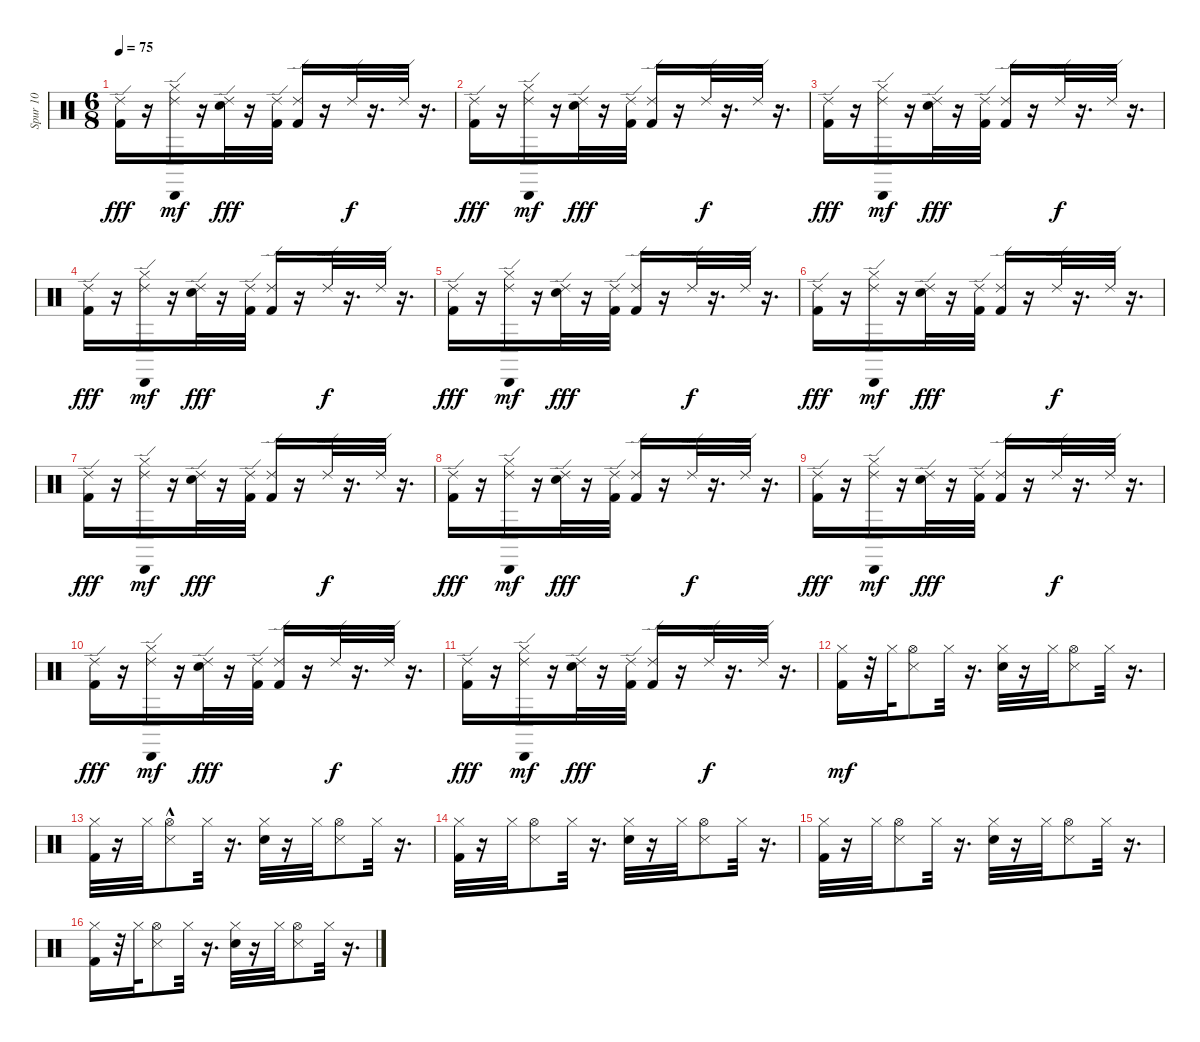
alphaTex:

\track ("Spur 10" "Spur 10") {instrument percussion}
\staff {score}
\articulation defaults
\ts (6 8)
\tempo 75
\clef neutral
\ks c
("Kick (hit) 2" "Ride (edge) 2").16{dy fff} r.16 ("Cabasa (hit)" "Hi-Hat (closed)" "Ride (edge) 2").16{dy mf} r.16 ("Snare (hit) 2" "Ride (edge) 2").32{dy fff} r.16 ("Kick (hit) 2" "Ride (edge) 2").32 ("Kick (hit) 2" "Ride (edge) 2").16 r.16 "Ride (edge) 2".32{dy f} r.16{d} "Ride (edge) 2".32 r.16{d} |
("Kick (hit) 2" "Ride (edge) 2").16{dy fff} r.16 ("Cabasa (hit)" "Hi-Hat (closed)" "Ride (edge) 2").16{dy mf} r.16 ("Snare (hit) 2" "Ride (edge) 2").32{dy fff} r.16 ("Kick (hit) 2" "Ride (edge) 2").32 ("Kick (hit) 2" "Ride (edge) 2").16 r.16 "Ride (edge) 2".32{dy f} r.16{d} "Ride (edge) 2".32 r.16{d} |
("Kick (hit) 2" "Ride (edge) 2").16{dy fff} r.16 ("Cabasa (hit)" "Hi-Hat (closed)" "Ride (edge) 2").16{dy mf} r.16 ("Snare (hit) 2" "Ride (edge) 2").32{dy fff} r.16 ("Kick (hit) 2" "Ride (edge) 2").32 ("Kick (hit) 2" "Ride (edge) 2").16 r.16 "Ride (edge) 2".32{dy f} r.16{d} "Ride (edge) 2".32 r.16{d} |
("Kick (hit) 2" "Ride (edge) 2").16{dy fff} r.16 ("Cabasa (hit)" "Hi-Hat (closed)" "Ride (edge) 2").16{dy mf} r.16 ("Snare (hit) 2" "Ride (edge) 2").32{dy fff} r.16 ("Kick (hit) 2" "Ride (edge) 2").32 ("Kick (hit) 2" "Ride (edge) 2").16 r.16 "Ride (edge) 2".32{dy f} r.16{d} "Ride (edge) 2".32 r.16{d} |
("Kick (hit) 2" "Ride (edge) 2").16{dy fff} r.16 ("Cabasa (hit)" "Hi-Hat (closed)" "Ride (edge) 2").16{dy mf} r.16 ("Snare (hit) 2" "Ride (edge) 2").32{dy fff} r.16 ("Kick (hit) 2" "Ride (edge) 2").32 ("Kick (hit) 2" "Ride (edge) 2").16 r.16 "Ride (edge) 2".32{dy f} r.16{d} "Ride (edge) 2".32 r.16{d} |
("Kick (hit) 2" "Ride (edge) 2").16{dy fff} r.16 ("Cabasa (hit)" "Hi-Hat (closed)" "Ride (edge) 2").16{dy mf} r.16 ("Snare (hit) 2" "Ride (edge) 2").32{dy fff} r.16 ("Kick (hit) 2" "Ride (edge) 2").32 ("Kick (hit) 2" "Ride (edge) 2").16 r.16 "Ride (edge) 2".32{dy f} r.16{d} "Ride (edge) 2".32 r.16{d} |
("Kick (hit) 2" "Ride (edge) 2").16{dy fff} r.16 ("Cabasa (hit)" "Hi-Hat (closed)" "Ride (edge) 2").16{dy mf} r.16 ("Snare (hit) 2" "Ride (edge) 2").32{dy fff} r.16 ("Kick (hit) 2" "Ride (edge) 2").32 ("Kick (hit) 2" "Ride (edge) 2").16 r.16 "Ride (edge) 2".32{dy f} r.16{d} "Ride (edge) 2".32 r.16{d} |
("Kick (hit) 2" "Ride (edge) 2").16{dy fff} r.16 ("Cabasa (hit)" "Hi-Hat (closed)" "Ride (edge) 2").16{dy mf} r.16 ("Snare (hit) 2" "Ride (edge) 2").32{dy fff} r.16 ("Kick (hit) 2" "Ride (edge) 2").32 ("Kick (hit) 2" "Ride (edge) 2").16 r.16 "Ride (edge) 2".32{dy f} r.16{d} "Ride (edge) 2".32 r.16{d} |
("Kick (hit) 2" "Ride (edge) 2").16{dy fff} r.16 ("Cabasa (hit)" "Hi-Hat (closed)" "Ride (edge) 2").16{dy mf} r.16 ("Snare (hit) 2" "Ride (edge) 2").32{dy fff} r.16 ("Kick (hit) 2" "Ride (edge) 2").32 ("Kick (hit) 2" "Ride (edge) 2").16 r.16 "Ride (edge) 2".32{dy f} r.16{d} "Ride (edge) 2".32 r.16{d} |
("Kick (hit) 2" "Ride (edge) 2").16{dy fff} r.16 ("Cabasa (hit)" "Hi-Hat (closed)" "Ride (edge) 2").16{dy mf} r.16 ("Snare (hit) 2" "Ride (edge) 2").32{dy fff} r.16 ("Kick (hit) 2" "Ride (edge) 2").32 ("Kick (hit) 2" "Ride (edge) 2").16 r.16 "Ride (edge) 2".32{dy f} r.16{d} "Ride (edge) 2".32 r.16{d} |
("Kick (hit) 2" "Ride (edge) 2").16{dy fff} r.16 ("Cabasa (hit)" "Hi-Hat (closed)" "Ride (edge) 2").16{dy mf} r.16 ("Snare (hit) 2" "Ride (edge) 2").32{dy fff} r.16 ("Kick (hit) 2" "Ride (edge) 2").32 ("Kick (hit) 2" "Ride (edge) 2").16 r.16 "Ride (edge) 2".32{dy f} r.16{d} "Ride (edge) 2".32 r.16{d} |
("Kick (hit) 2" "Hi-Hat (closed)").16{dy mf} r.32 "Hi-Hat (closed)".32 ("Snare (side stick) 3" "Hi-Hat (open)").8 "Hi-Hat (closed)".32 r.16{d} ("Snare (hit) 2" "Hi-Hat (closed)").32 r.16 "Hi-Hat (closed)".32 ("Snare (side stick) 3" "Hi-Hat (open)").8 "Hi-Hat (closed)".32 r.16{d} |
("Kick (hit) 2" "Hi-Hat (closed)").32 r.16 "Hi-Hat (closed)".32 ("Snare (side stick) 3"{hac} "Hi-Hat (open)").8 "Hi-Hat (closed)".32 r.16{d} ("Snare (hit) 2" "Hi-Hat (closed)").32 r.16 "Hi-Hat (closed)".32 ("Snare (side stick) 3" "Hi-Hat (open)").8 "Hi-Hat (closed)".32 r.16{d} |
("Kick (hit) 2" "Hi-Hat (closed)").32 r.16 "Hi-Hat (closed)".32 ("Snare (side stick) 3" "Hi-Hat (open)").8 "Hi-Hat (closed)".32 r.16{d} ("Snare (hit) 2" "Hi-Hat (closed)").32 r.16 "Hi-Hat (closed)".32 ("Snare (side stick) 3" "Hi-Hat (open)").8 "Hi-Hat (closed)".32 r.16{d} |
("Kick (hit) 2" "Hi-Hat (closed)").32 r.16 "Hi-Hat (closed)".32 ("Snare (side stick) 3" "Hi-Hat (open)").8 "Hi-Hat (closed)".32 r.16{d} ("Snare (hit) 2" "Hi-Hat (closed)").32 r.16 "Hi-Hat (closed)".32 ("Snare (side stick) 3" "Hi-Hat (open)").8 "Hi-Hat (closed)".32 r.16{d} |
("Kick (hit) 2" "Hi-Hat (closed)").16 r.32 "Hi-Hat (closed)".32 ("Snare (side stick) 3" "Hi-Hat (open)").8 "Hi-Hat (closed)".32 r.16{d} ("Snare (hit) 2" "Hi-Hat (closed)").32 r.16 "Hi-Hat (closed)".32 ("Snare (side stick) 3" "Hi-Hat (open)").8 "Hi-Hat (closed)".32 r.16{d}
